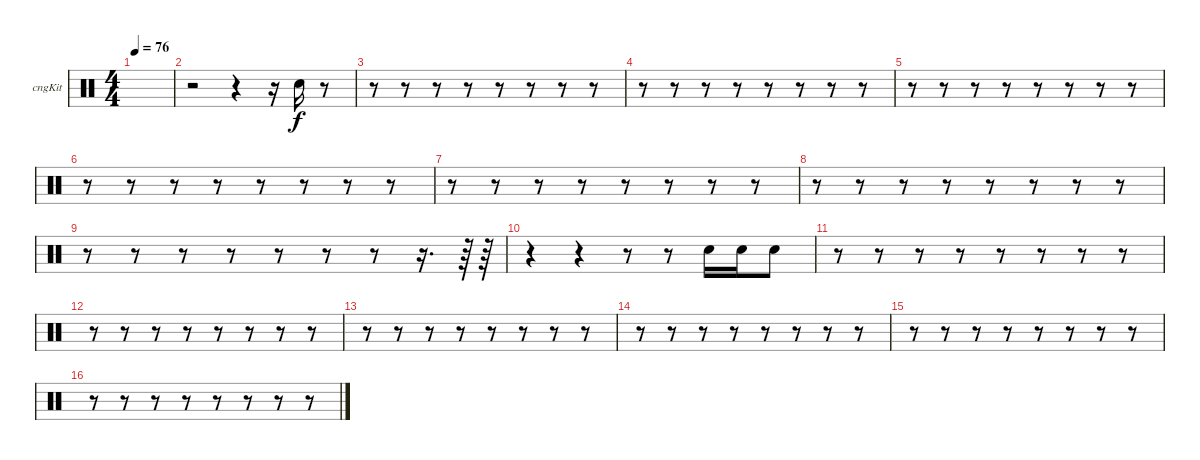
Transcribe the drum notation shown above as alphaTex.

\bracketExtendMode groupsimilarinstruments
\firstSystemTrackNameOrientation horizontal
\otherSystemsTrackNameOrientation horizontal
\track ("Congas" "cngKit") {instrument percussion}
\staff {score}
\articulation defaults
\ts (4 4)
\tempo 76
\clef neutral
\ks c
|
r.2 r.4 r.16 "Snare (hit) 2".16 r.8 |
r.8 r.8 r.8 r.8 r.8 r.8 r.8 r.8 |
r.8 r.8 r.8 r.8 r.8 r.8 r.8 r.8 |
r.8 r.8 r.8 r.8 r.8 r.8 r.8 r.8 |
r.8 r.8 r.8 r.8 r.8 r.8 r.8 r.8 |
r.8 r.8 r.8 r.8 r.8 r.8 r.8 r.8 |
r.8 r.8 r.8 r.8 r.8 r.8 r.8 r.8 |
r.8 r.8 r.8 r.8 r.8 r.8 r.8 r.16{d} r.64 r.64 |
r.4 r.4 r.8 r.8 "Snare (hit) 2".16 "Snare (hit) 2".16 "Snare (hit) 2".8 |
r.8 r.8 r.8 r.8 r.8 r.8 r.8 r.8 |
r.8 r.8 r.8 r.8 r.8 r.8 r.8 r.8 |
r.8 r.8 r.8 r.8 r.8 r.8 r.8 r.8 |
r.8 r.8 r.8 r.8 r.8 r.8 r.8 r.8 |
r.8 r.8 r.8 r.8 r.8 r.8 r.8 r.8 |
r.8 r.8 r.8 r.8 r.8 r.8 r.8 r.8
